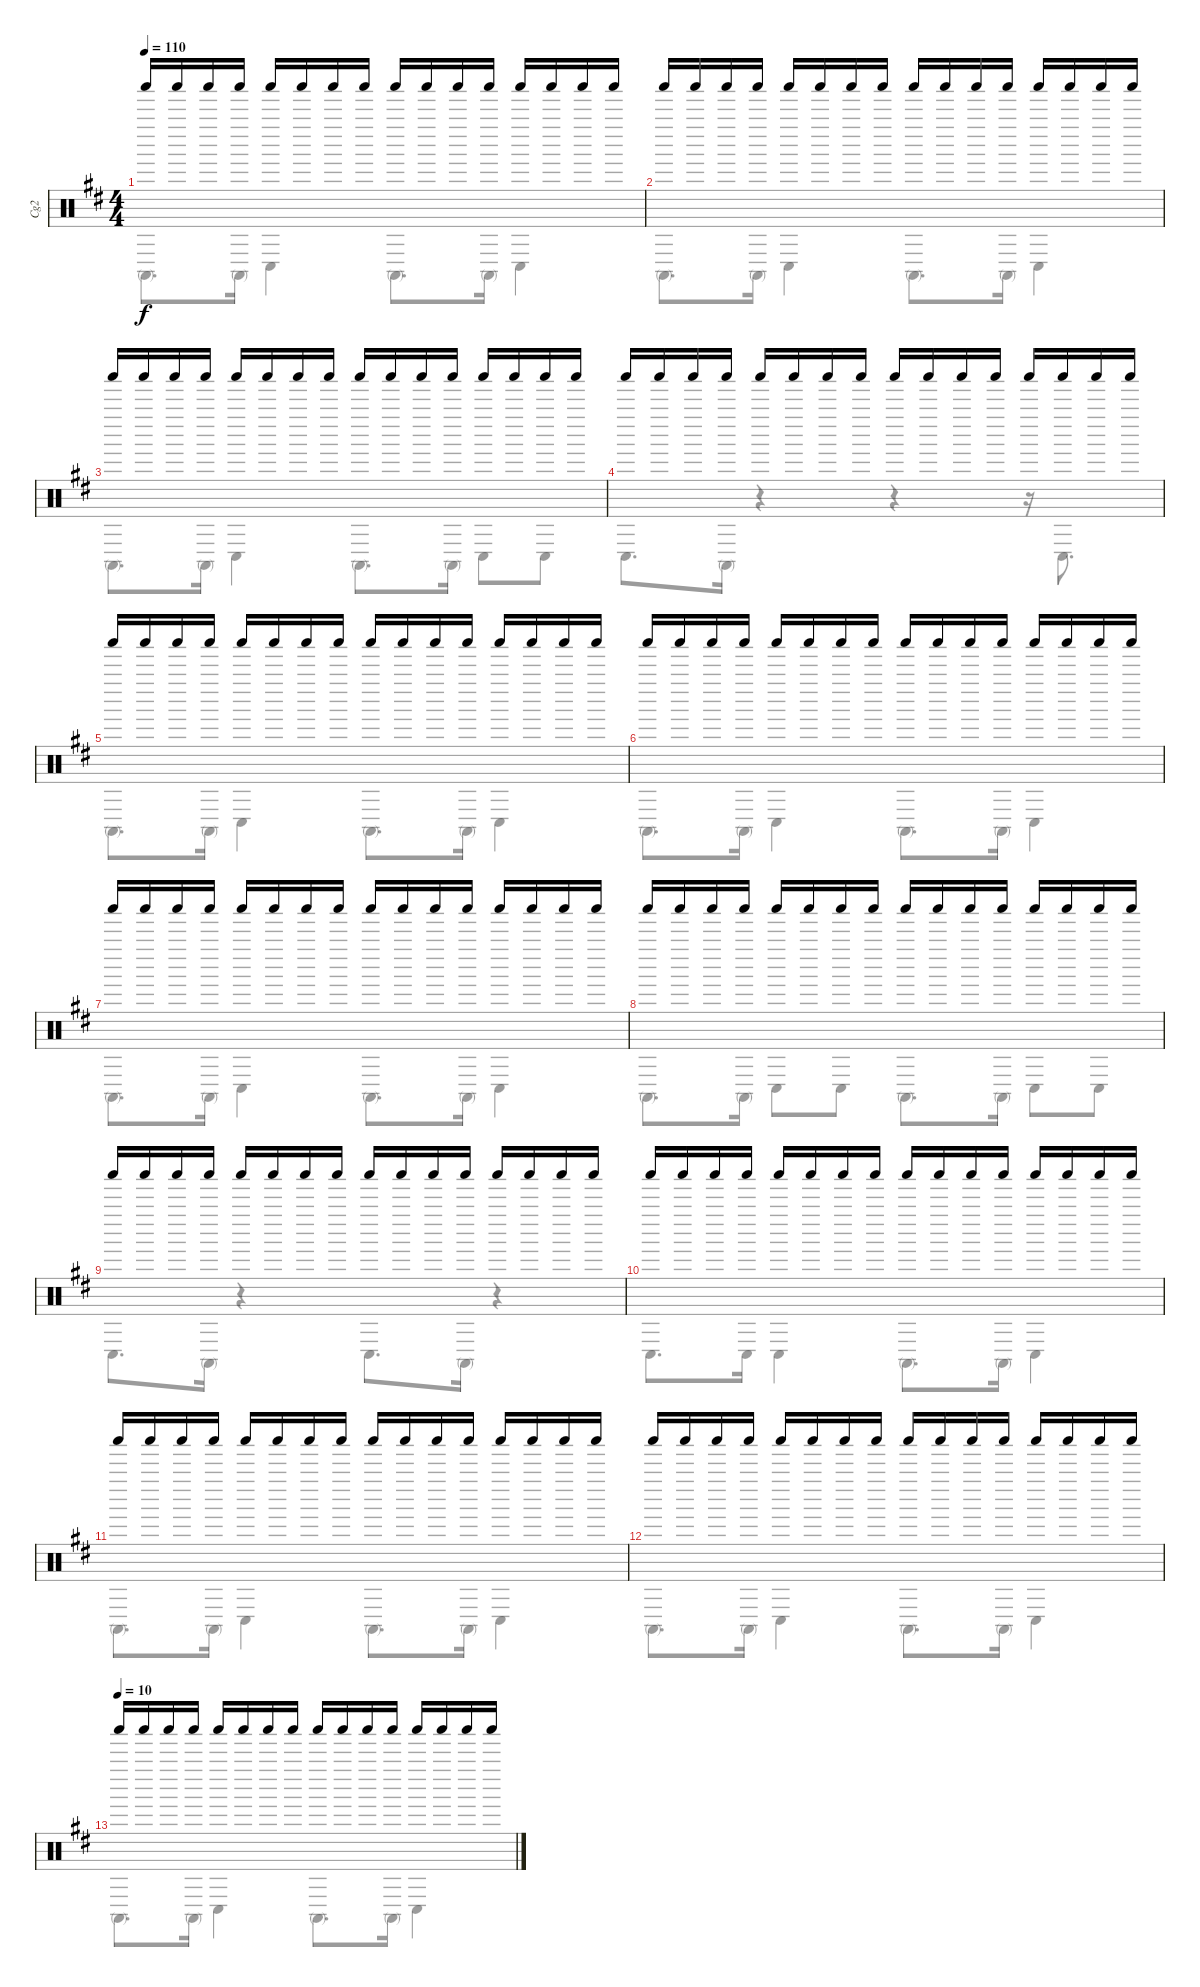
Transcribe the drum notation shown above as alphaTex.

\track ("Cg2" "Cg2") {instrument percussion}
\staff {score}
\articulation defaults
\voice
\ts (4 4)
\tempo 110
\clef neutral
\ks d "Shaker (hit)".16{dy f} "Shaker (hit)".16 "Shaker (hit)".16 "Shaker (hit)".16 "Shaker (hit)".16 "Shaker (hit)".16 "Shaker (hit)".16 "Shaker (hit)".16 "Shaker (hit)".16 "Shaker (hit)".16 "Shaker (hit)".16 "Shaker (hit)".16 "Shaker (hit)".16 "Shaker (hit)".16 "Shaker (hit)".16 "Shaker (hit)".16
|
"Shaker (hit)".16 "Shaker (hit)".16 "Shaker (hit)".16 "Shaker (hit)".16 "Shaker (hit)".16 "Shaker (hit)".16 "Shaker (hit)".16 "Shaker (hit)".16 "Shaker (hit)".16 "Shaker (hit)".16 "Shaker (hit)".16 "Shaker (hit)".16 "Shaker (hit)".16 "Shaker (hit)".16 "Shaker (hit)".16 "Shaker (hit)".16 |
"Shaker (hit)".16 "Shaker (hit)".16 "Shaker (hit)".16 "Shaker (hit)".16 "Shaker (hit)".16 "Shaker (hit)".16 "Shaker (hit)".16 "Shaker (hit)".16 "Shaker (hit)".16 "Shaker (hit)".16 "Shaker (hit)".16 "Shaker (hit)".16 "Shaker (hit)".16 "Shaker (hit)".16 "Shaker (hit)".16 "Shaker (hit)".16 |
"Shaker (hit)".16 "Shaker (hit)".16 "Shaker (hit)".16 "Shaker (hit)".16 "Shaker (hit)".16 "Shaker (hit)".16 "Shaker (hit)".16 "Shaker (hit)".16 "Shaker (hit)".16 "Shaker (hit)".16 "Shaker (hit)".16 "Shaker (hit)".16 "Shaker (hit)".16 "Shaker (hit)".16 "Shaker (hit)".16 "Shaker (hit)".16 |
"Shaker (hit)".16 "Shaker (hit)".16 "Shaker (hit)".16 "Shaker (hit)".16 "Shaker (hit)".16 "Shaker (hit)".16 "Shaker (hit)".16 "Shaker (hit)".16 "Shaker (hit)".16 "Shaker (hit)".16 "Shaker (hit)".16 "Shaker (hit)".16 "Shaker (hit)".16 "Shaker (hit)".16 "Shaker (hit)".16 "Shaker (hit)".16 |
"Shaker (hit)".16 "Shaker (hit)".16 "Shaker (hit)".16 "Shaker (hit)".16 "Shaker (hit)".16 "Shaker (hit)".16 "Shaker (hit)".16 "Shaker (hit)".16 "Shaker (hit)".16 "Shaker (hit)".16 "Shaker (hit)".16 "Shaker (hit)".16 "Shaker (hit)".16 "Shaker (hit)".16 "Shaker (hit)".16 "Shaker (hit)".16 |
"Shaker (hit)".16 "Shaker (hit)".16 "Shaker (hit)".16 "Shaker (hit)".16 "Shaker (hit)".16 "Shaker (hit)".16 "Shaker (hit)".16 "Shaker (hit)".16 "Shaker (hit)".16 "Shaker (hit)".16 "Shaker (hit)".16 "Shaker (hit)".16 "Shaker (hit)".16 "Shaker (hit)".16 "Shaker (hit)".16 "Shaker (hit)".16 |
"Shaker (hit)".16 "Shaker (hit)".16 "Shaker (hit)".16 "Shaker (hit)".16 "Shaker (hit)".16 "Shaker (hit)".16 "Shaker (hit)".16 "Shaker (hit)".16 "Shaker (hit)".16 "Shaker (hit)".16 "Shaker (hit)".16 "Shaker (hit)".16 "Shaker (hit)".16 "Shaker (hit)".16 "Shaker (hit)".16 "Shaker (hit)".16 |
"Shaker (hit)".16 "Shaker (hit)".16 "Shaker (hit)".16 "Shaker (hit)".16 "Shaker (hit)".16 "Shaker (hit)".16 "Shaker (hit)".16 "Shaker (hit)".16 "Shaker (hit)".16 "Shaker (hit)".16 "Shaker (hit)".16 "Shaker (hit)".16 "Shaker (hit)".16 "Shaker (hit)".16 "Shaker (hit)".16 "Shaker (hit)".16 |
"Shaker (hit)".16 "Shaker (hit)".16 "Shaker (hit)".16 "Shaker (hit)".16 "Shaker (hit)".16 "Shaker (hit)".16 "Shaker (hit)".16 "Shaker (hit)".16 "Shaker (hit)".16 "Shaker (hit)".16 "Shaker (hit)".16 "Shaker (hit)".16 "Shaker (hit)".16 "Shaker (hit)".16 "Shaker (hit)".16 "Shaker (hit)".16 |
"Shaker (hit)".16 "Shaker (hit)".16 "Shaker (hit)".16 "Shaker (hit)".16 "Shaker (hit)".16 "Shaker (hit)".16 "Shaker (hit)".16 "Shaker (hit)".16 "Shaker (hit)".16 "Shaker (hit)".16 "Shaker (hit)".16 "Shaker (hit)".16 "Shaker (hit)".16 "Shaker (hit)".16 "Shaker (hit)".16 "Shaker (hit)".16 |
"Shaker (hit)".16 "Shaker (hit)".16 "Shaker (hit)".16 "Shaker (hit)".16 "Shaker (hit)".16 "Shaker (hit)".16 "Shaker (hit)".16 "Shaker (hit)".16 "Shaker (hit)".16 "Shaker (hit)".16 "Shaker (hit)".16 "Shaker (hit)".16 "Shaker (hit)".16 "Shaker (hit)".16 "Shaker (hit)".16 "Shaker (hit)".16 |
\tempo (10)
"Shaker (hit)".16 "Shaker (hit)".16 "Shaker (hit)".16 "Shaker (hit)".16 "Shaker (hit)".16 "Shaker (hit)".16 "Shaker (hit)".16 "Shaker (hit)".16 "Shaker (hit)".16 "Shaker (hit)".16 "Shaker (hit)".16 "Shaker (hit)".16 "Shaker (hit)".16 "Shaker (hit)".16 "Shaker (hit)".16 "Shaker (hit)".16 |
\voice
\clef neutral
\ottava regular
\simile none
\ks d "Conga high (mute)".8{d dy f} "Conga high (mute)".16 "Conga low (hit)".4 "Conga high (mute)".8{d} "Conga high (mute)".16 "Conga low (hit)".4
|
"Conga high (mute)".8{d} "Conga high (mute)".16 "Conga low (hit)".4 "Conga high (mute)".8{d} "Conga high (mute)".16 "Conga low (hit)".4 |
"Conga high (mute)".8{d} "Conga high (mute)".16 "Conga low (hit)".4 "Conga high (mute)".8{d} "Conga high (mute)".16 "Conga low (hit)".8 "Conga low (hit)".8 |
"Conga low (hit)".8{d} "Conga high (mute)".16 r.4 r.4 r.16 "Conga low (hit)".8{d} |
"Conga high (mute)".8{d} "Conga high (mute)".16 "Conga low (hit)".4 "Conga high (mute)".8{d} "Conga high (mute)".16 "Conga low (hit)".4 |
"Conga high (mute)".8{d} "Conga high (mute)".16 "Conga low (hit)".4 "Conga high (mute)".8{d} "Conga high (mute)".16 "Conga low (hit)".4 |
"Conga high (mute)".8{d} "Conga high (mute)".16 "Conga low (hit)".4 "Conga high (mute)".8{d} "Conga high (mute)".16 "Conga low (hit)".4 |
"Conga high (mute)".8{d} "Conga high (mute)".16 "Conga low (hit)".8 "Conga low (hit)".8 "Conga high (mute)".8{d} "Conga high (mute)".16 "Conga low (hit)".8 "Conga low (hit)".8 |
"Conga low (hit)".8{d} "Conga high (mute)".16 r.4 "Conga low (hit)".8{d} "Conga high (mute)".16 r.4 |
"Conga low (hit)".8{d} "Conga low (hit)".16 "Conga low (hit)".4 "Conga high (mute)".8{d} "Conga high (mute)".16 "Conga low (hit)".4 |
"Conga high (mute)".8{d} "Conga high (mute)".16 "Conga low (hit)".4 "Conga high (mute)".8{d} "Conga high (mute)".16 "Conga low (hit)".4 |
"Conga high (mute)".8{d} "Conga high (mute)".16 "Conga low (hit)".4 "Conga high (mute)".8{d} "Conga high (mute)".16 "Conga low (hit)".4 |
"Conga high (mute)".8{d} "Conga high (mute)".16 "Conga low (hit)".4 "Conga high (mute)".8{d} "Conga high (mute)".16 "Conga low (hit)".4 |
